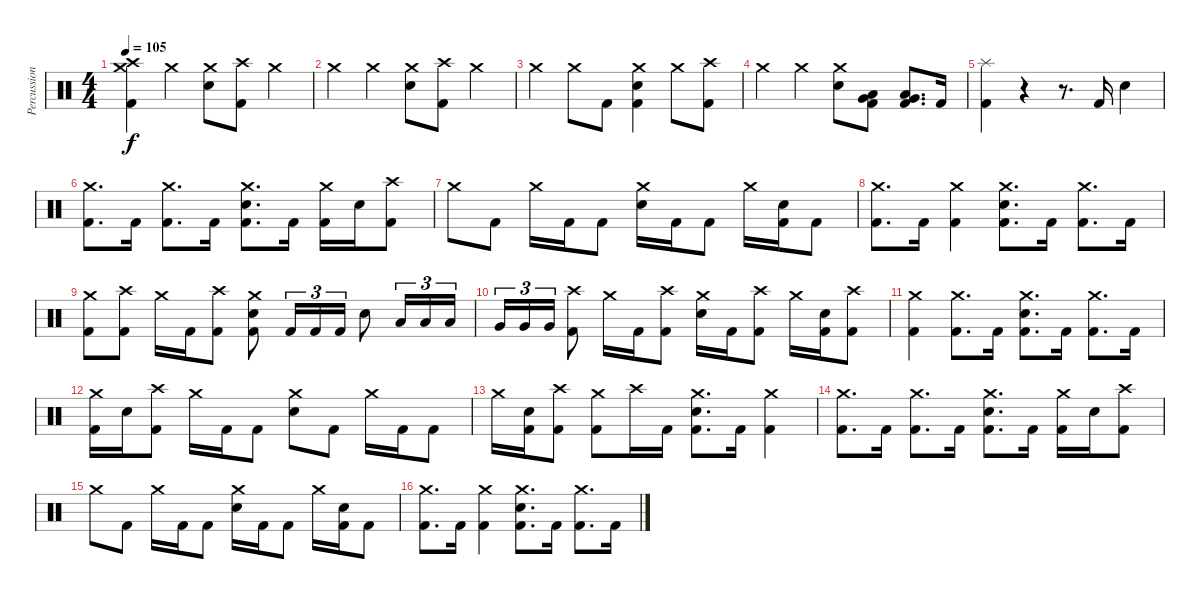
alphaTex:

\track ("Percussion" "Percussion") {instrument percussion}
\staff {score}
\articulation defaults
\ts (4 4)
\tempo 105
\clef neutral
\ks c
("Crash high (hit)" "Crash medium (hit)" "Kick (hit) 2").4{dy f} "Crash medium (hit)".4 ("Crash medium (hit)" "Electric Snare (hit)").8 ("Crash high (hit)" "Kick (hit) 2").8 "Crash medium (hit)".4 |
"Crash medium (hit)".4 "Crash medium (hit)".4 ("Crash medium (hit)" "Electric Snare (hit)").8 ("Crash high (hit)" "Kick (hit) 2").8 "Crash medium (hit)".4 |
"Crash medium (hit)".4 "Crash medium (hit)".8 "Kick (hit) 2".8 ("Crash medium (hit)" "Electric Snare (hit)" "Kick (hit) 2").4 "Crash medium (hit)".8 ("Crash high (hit)" "Kick (hit) 2").8 |
"Crash medium (hit)".4 "Crash medium (hit)".4 ("Crash medium (hit)" "Electric Snare (hit)").8 ("Very Low Tom (hit)" "Low Floor Tom (hit)" "Kick (hit) 2").8 ("Very Low Tom (hit)" "Low Floor Tom (hit)" "Kick (hit) 2").8{d} "Kick (hit) 2".16 |
("Splash (hit)" "Kick (hit) 2").4 r.4 r.8{d} "Kick (hit) 2".16 "Electric Snare (hit)".4 |
("Crash medium (hit)" "Kick (hit) 2").8{d} "Kick (hit) 2".16 ("Crash medium (hit)" "Kick (hit) 2").8{d} "Kick (hit) 2".16 ("Crash medium (hit)" "Electric Snare (hit)" "Kick (hit) 2").8{d} "Kick (hit) 2".16 ("Crash medium (hit)" "Kick (hit) 2").16 "Electric Snare (hit)".16 ("Crash high (hit)" "Kick (hit) 2").8 |
"Crash medium (hit)".8 "Kick (hit) 2".8 "Crash medium (hit)".16 "Kick (hit) 2".16 "Kick (hit) 2".8 ("Crash medium (hit)" "Electric Snare (hit)").16 "Kick (hit) 2".16 "Kick (hit) 2".8 "Crash medium (hit)".16 ("Electric Snare (hit)" "Kick (hit) 2").16 "Kick (hit) 2".8 |
("Crash medium (hit)" "Kick (hit) 2").8{d} "Kick (hit) 2".16 ("Crash medium (hit)" "Kick (hit) 2").4 ("Crash medium (hit)" "Electric Snare (hit)" "Kick (hit) 2").8{d} "Kick (hit) 2".16 ("Crash medium (hit)" "Kick (hit) 2").8{d} "Kick (hit) 2".16 |
("Crash medium (hit)" "Kick (hit) 2").8 ("Crash high (hit)" "Kick (hit) 2").8 "Crash medium (hit)".16 "Kick (hit) 2".16 ("Crash high (hit)" "Kick (hit) 2").8 ("Crash medium (hit)" "Electric Snare (hit)" "Kick (hit) 2").8 "Kick (hit) 2".16{tu (3 2)} "Kick (hit) 2".16{tu (3 2)} "Kick (hit) 2".16{tu (3 2)} "Electric Snare (hit)".8 "Low Tom (hit)".16{tu (3 2)} "Low Tom (hit)".16{tu (3 2)} "Low Tom (hit)".16{tu (3 2)} |
"Very Low Tom (hit)".16{tu (3 2)} "Very Low Tom (hit)".16{tu (3 2)} "Very Low Tom (hit)".16{tu (3 2)} ("Crash high (hit)" "Kick (hit) 2").8 "Crash medium (hit)".16 "Kick (hit) 2".16 ("Crash high (hit)" "Kick (hit) 2").8 ("Crash medium (hit)" "Electric Snare (hit)").16 "Kick (hit) 2".16 ("Crash high (hit)" "Kick (hit) 2").8 "Crash medium (hit)".16 ("Electric Snare (hit)" "Kick (hit) 2").16 ("Crash high (hit)" "Kick (hit) 2").8 |
("Crash medium (hit)" "Kick (hit) 2").4 ("Crash medium (hit)" "Kick (hit) 2").8{d} "Kick (hit) 2".16 ("Crash medium (hit)" "Electric Snare (hit)" "Kick (hit) 2").8{d} "Kick (hit) 2".16 ("Crash medium (hit)" "Kick (hit) 2").8{d} "Kick (hit) 2".16 |
("Crash medium (hit)" "Kick (hit) 2").16 "Electric Snare (hit)".16 ("Crash high (hit)" "Kick (hit) 2").8 "Crash medium (hit)".16 "Kick (hit) 2".16 "Kick (hit) 2".8 ("Crash medium (hit)" "Electric Snare (hit)").8 "Kick (hit) 2".8 "Crash medium (hit)".16 "Kick (hit) 2".16 "Kick (hit) 2".8 |
"Crash medium (hit)".16 ("Electric Snare (hit)" "Kick (hit) 2").16 ("Crash high (hit)" "Kick (hit) 2").8 ("Crash medium (hit)" "Kick (hit) 2").8 "Crash high (hit)".16 "Kick (hit) 2".16 ("Crash medium (hit)" "Electric Snare (hit)" "Kick (hit) 2").8{d} "Kick (hit) 2".16 ("Crash medium (hit)" "Kick (hit) 2").4 |
("Crash medium (hit)" "Kick (hit) 2").8{d} "Kick (hit) 2".16 ("Crash medium (hit)" "Kick (hit) 2").8{d} "Kick (hit) 2".16 ("Crash medium (hit)" "Electric Snare (hit)" "Kick (hit) 2").8{d} "Kick (hit) 2".16 ("Crash medium (hit)" "Kick (hit) 2").16 "Electric Snare (hit)".16 ("Crash high (hit)" "Kick (hit) 2").8 |
"Crash medium (hit)".8 "Kick (hit) 2".8 "Crash medium (hit)".16 "Kick (hit) 2".16 "Kick (hit) 2".8 ("Crash medium (hit)" "Electric Snare (hit)").16 "Kick (hit) 2".16 "Kick (hit) 2".8 "Crash medium (hit)".16 ("Electric Snare (hit)" "Kick (hit) 2").16 "Kick (hit) 2".8 |
("Crash medium (hit)" "Kick (hit) 2").8{d} "Kick (hit) 2".16 ("Crash medium (hit)" "Kick (hit) 2").4 ("Crash medium (hit)" "Electric Snare (hit)" "Kick (hit) 2").8{d} "Kick (hit) 2".16 ("Crash medium (hit)" "Kick (hit) 2").8{d} "Kick (hit) 2".16
